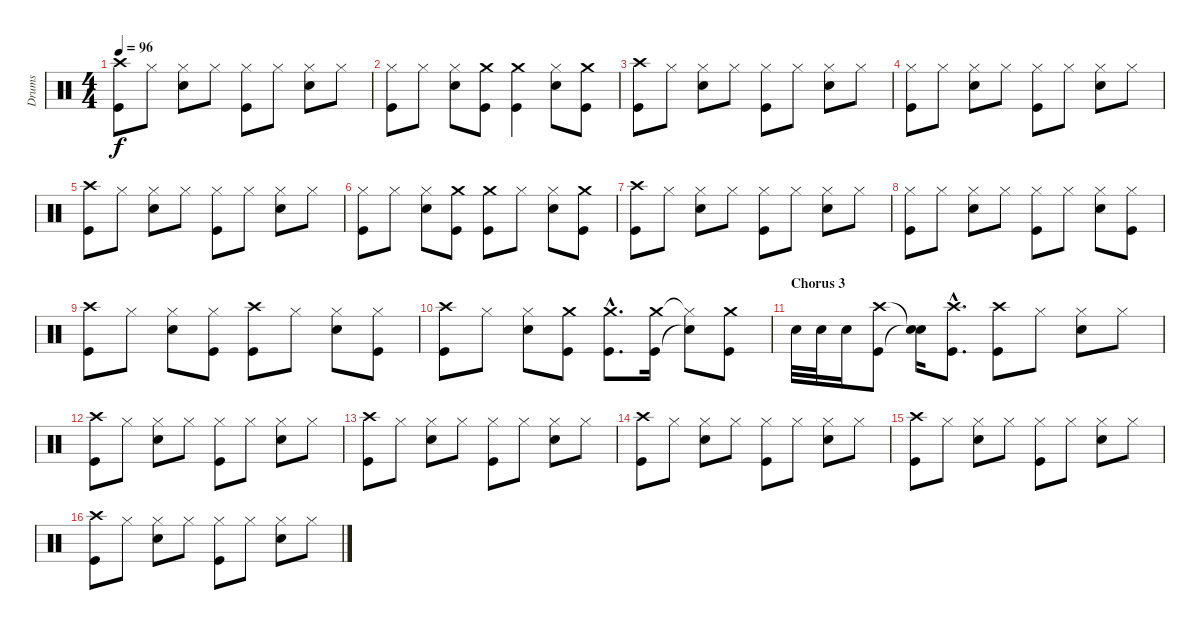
\track ("Drums" "Drums") {instrument percussion}
\staff {score}
\articulation defaults
\ts (4 4)
\tempo 96
\clef neutral
\ks c
("Crash high (hit)" "Kick (hit)").8{dy f} "Hi-Hat (closed)".8 ("Hi-Hat (closed)" "Electric Snare (hit)").8 "Hi-Hat (closed)".8 ("Hi-Hat (closed)" "Kick (hit)").8 "Hi-Hat (closed)".8 ("Hi-Hat (closed)" "Electric Snare (hit)").8 "Hi-Hat (closed)".8 |
("Hi-Hat (closed)" "Kick (hit)").8 "Hi-Hat (closed)".8 ("Hi-Hat (closed)" "Electric Snare (hit)").8 ("Crash medium (hit)" "Kick (hit)").8 ("Crash medium (hit)" "Kick (hit)").4 ("Hi-Hat (closed)" "Electric Snare (hit)").8 ("Crash medium (hit)" "Kick (hit)").8 |
("Crash high (hit)" "Kick (hit)").8 "Hi-Hat (closed)".8 ("Hi-Hat (closed)" "Electric Snare (hit)").8 "Hi-Hat (closed)".8 ("Hi-Hat (closed)" "Kick (hit)").8 "Hi-Hat (closed)".8 ("Hi-Hat (closed)" "Electric Snare (hit)").8 "Hi-Hat (closed)".8 |
("Hi-Hat (closed)" "Kick (hit)").8 "Hi-Hat (closed)".8 ("Hi-Hat (closed)" "Electric Snare (hit)").8 "Hi-Hat (closed)".8 ("Hi-Hat (closed)" "Kick (hit)").8 "Hi-Hat (closed)".8 ("Hi-Hat (closed)" "Electric Snare (hit)").8 "Hi-Hat (closed)".8 |
("Crash high (hit)" "Kick (hit)").8 "Hi-Hat (closed)".8 ("Hi-Hat (closed)" "Electric Snare (hit)").8 "Hi-Hat (closed)".8 ("Hi-Hat (closed)" "Kick (hit)").8 "Hi-Hat (closed)".8 ("Hi-Hat (closed)" "Electric Snare (hit)").8 "Hi-Hat (closed)".8 |
("Hi-Hat (closed)" "Kick (hit)").8 "Hi-Hat (closed)".8 ("Hi-Hat (closed)" "Electric Snare (hit)").8 ("Crash medium (hit)" "Kick (hit)").8 ("Crash medium (hit)" "Kick (hit)").8 "Hi-Hat (closed)".8 ("Hi-Hat (closed)" "Electric Snare (hit)").8 ("Crash medium (hit)" "Kick (hit)").8 |
("Crash high (hit)" "Kick (hit)").8 "Hi-Hat (closed)".8 ("Hi-Hat (closed)" "Electric Snare (hit)").8 "Hi-Hat (closed)".8 ("Hi-Hat (closed)" "Kick (hit)").8 "Hi-Hat (closed)".8 ("Hi-Hat (closed)" "Electric Snare (hit)").8 "Hi-Hat (closed)".8 |
("Hi-Hat (closed)" "Kick (hit)").8 "Hi-Hat (closed)".8 ("Hi-Hat (closed)" "Electric Snare (hit)").8 "Hi-Hat (closed)".8 ("Hi-Hat (closed)" "Kick (hit)").8 "Hi-Hat (closed)".8 ("Hi-Hat (closed)" "Electric Snare (hit)").8 ("Hi-Hat (closed)" "Kick (hit)").8 |
("Crash high (hit)" "Kick (hit)").8 "Hi-Hat (closed)".8 ("Hi-Hat (closed)" "Electric Snare (hit)").8 ("Hi-Hat (closed)" "Kick (hit)").8 ("Crash high (hit)" "Kick (hit)").8 "Hi-Hat (closed)".8 ("Hi-Hat (closed)" "Electric Snare (hit)").8 ("Hi-Hat (closed)" "Kick (hit)").8 |
("Crash high (hit)" "Kick (hit)").8 "Hi-Hat (closed)".8 ("Hi-Hat (closed)" "Electric Snare (hit)").8 ("Crash medium (hit)" "Kick (hit)").8 ("Crash medium (hit)"{hac} "Kick (hit)"{hac}).8{d} ("Crash medium (hit)" "Kick (hit)").16 ("Hi-Hat (closed)"{t} "Electric Snare (hit)"{t}).8 ("Crash medium (hit)" "Kick (hit)").8 |
\section ("" "Chorus 3")
"Electric Snare (hit)".32 "Electric Snare (hit)".32 "Electric Snare (hit)".16 ("Crash high (hit)" "Kick (hit)").8 ("Snare (hit)"{t} "Snare (hit)"{t}).16 ("Crash high (hit)"{hac} "Kick (hit)"{hac}).8{d} ("Crash high (hit)" "Kick (hit)").8 "Hi-Hat (closed)".8 ("Hi-Hat (closed)" "Electric Snare (hit)").8 "Hi-Hat (closed)".8 |
("Crash high (hit)" "Kick (hit)").8 "Hi-Hat (closed)".8 ("Hi-Hat (closed)" "Electric Snare (hit)").8 "Hi-Hat (closed)".8 ("Hi-Hat (closed)" "Kick (hit)").8 "Hi-Hat (closed)".8 ("Hi-Hat (closed)" "Electric Snare (hit)").8 "Hi-Hat (closed)".8 |
("Crash high (hit)" "Kick (hit)").8 "Hi-Hat (closed)".8 ("Hi-Hat (closed)" "Electric Snare (hit)").8 "Hi-Hat (closed)".8 ("Hi-Hat (closed)" "Kick (hit)").8 "Hi-Hat (closed)".8 ("Hi-Hat (closed)" "Electric Snare (hit)").8 "Hi-Hat (closed)".8 |
("Crash high (hit)" "Kick (hit)").8 "Hi-Hat (closed)".8 ("Hi-Hat (closed)" "Electric Snare (hit)").8 "Hi-Hat (closed)".8 ("Hi-Hat (closed)" "Kick (hit)").8 "Hi-Hat (closed)".8 ("Hi-Hat (closed)" "Electric Snare (hit)").8 "Hi-Hat (closed)".8 |
("Crash high (hit)" "Kick (hit)").8 "Hi-Hat (closed)".8 ("Hi-Hat (closed)" "Electric Snare (hit)").8 "Hi-Hat (closed)".8 ("Hi-Hat (closed)" "Kick (hit)").8 "Hi-Hat (closed)".8 ("Hi-Hat (closed)" "Electric Snare (hit)").8 "Hi-Hat (closed)".8 |
("Crash high (hit)" "Kick (hit)").8 "Hi-Hat (closed)".8 ("Hi-Hat (closed)" "Electric Snare (hit)").8 "Hi-Hat (closed)".8 ("Hi-Hat (closed)" "Kick (hit)").8 "Hi-Hat (closed)".8 ("Hi-Hat (closed)" "Electric Snare (hit)").8 "Hi-Hat (closed)".8
